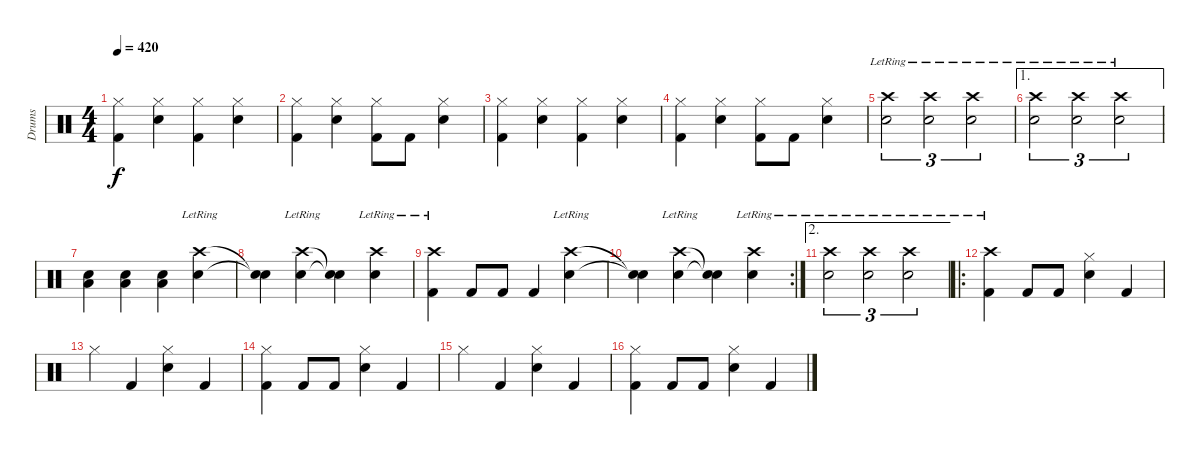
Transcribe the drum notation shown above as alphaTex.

\track ("Drums" "Drums") {instrument percussion}
\staff {score}
\articulation defaults
\ts (4 4)
\tempo 420
\clef neutral
\ks c
("Hi-Hat (closed)" "Kick (hit) 2").4{dy f} ("Hi-Hat (closed)" "Snare (hit) 2").4 ("Hi-Hat (closed)" "Kick (hit) 2").4 ("Hi-Hat (closed)" "Snare (hit) 2").4 |
("Hi-Hat (closed)" "Kick (hit) 2").4 ("Hi-Hat (closed)" "Snare (hit) 2").4 ("Hi-Hat (closed)" "Kick (hit) 2").8 "Kick (hit) 2".8 ("Hi-Hat (closed)" "Snare (hit) 2").4 |
("Hi-Hat (closed)" "Kick (hit) 2").4 ("Hi-Hat (closed)" "Snare (hit) 2").4 ("Hi-Hat (closed)" "Kick (hit) 2").4 ("Hi-Hat (closed)" "Snare (hit) 2").4 |
("Hi-Hat (closed)" "Kick (hit) 2").4 ("Hi-Hat (closed)" "Snare (hit) 2").4 ("Hi-Hat (closed)" "Kick (hit) 2").8 "Kick (hit) 2".8 ("Hi-Hat (closed)" "Snare (hit) 2").4 |
("Crash high (hit)"{lr} "Snare (hit) 2").2{tu (3 2)} ("Crash high (hit)"{lr} "Snare (hit) 2").2{tu (3 2)} ("Crash high (hit)"{lr} "Snare (hit) 2").2{tu (3 2)} |
\ae 1
("Crash high (hit)"{lr} "Snare (hit) 2").2{tu (3 2)} ("Crash high (hit)"{lr} "Snare (hit) 2").2{tu (3 2)} ("Crash high (hit)"{lr} "Snare (hit) 2").2{tu (3 2)} |
("Snare (hit) 2" "Low Floor Tom (hit)").4 ("Snare (hit) 2" "Low Floor Tom (hit)").4 ("Snare (hit) 2" "Low Floor Tom (hit)").4 ("Crash high (hit)"{lr} "Snare (hit) 2").4 |
("Snare (hit)"{t} "Snare (hit)"{t}).4 ("Crash high (hit)"{lr} "Snare (hit) 2").4 ("Snare (hit)"{t} "Snare (hit)"{t}).4 ("Crash high (hit)"{lr} "Snare (hit) 2").4 |
("Crash high (hit)"{lr} "Kick (hit) 2").4 "Kick (hit) 2".8 "Kick (hit) 2".8 "Kick (hit) 2".4 ("Crash high (hit)"{lr} "Snare (hit) 2").4 |
\rc 2
("Snare (hit)"{t} "Snare (hit)"{t}).4 ("Crash high (hit)"{lr} "Snare (hit) 2").4 ("Snare (hit)"{t} "Snare (hit)"{t}).4 ("Crash high (hit)"{lr} "Snare (hit) 2").4 |
\ae 2
("Crash high (hit)"{lr} "Snare (hit) 2").2{tu (3 2)} ("Crash high (hit)"{lr} "Snare (hit) 2").2{tu (3 2)} ("Crash high (hit)"{lr} "Snare (hit) 2").2{tu (3 2)} |
\ro
("Crash high (hit)"{lr} "Kick (hit) 2").4 "Kick (hit) 2".8 "Kick (hit) 2".8 ("Hi-Hat (closed)" "Snare (hit) 2").4 "Kick (hit) 2".4 |
"Hi-Hat (closed)".4 "Kick (hit) 2".4 ("Hi-Hat (closed)" "Snare (hit) 2").4 "Kick (hit) 2".4 |
("Hi-Hat (closed)" "Kick (hit) 2").4 "Kick (hit) 2".8 "Kick (hit) 2".8 ("Hi-Hat (closed)" "Snare (hit) 2").4 "Kick (hit) 2".4 |
"Hi-Hat (closed)".4 "Kick (hit) 2".4 ("Hi-Hat (closed)" "Snare (hit) 2").4 "Kick (hit) 2".4 |
("Hi-Hat (closed)" "Kick (hit) 2").4 "Kick (hit) 2".8 "Kick (hit) 2".8 ("Hi-Hat (closed)" "Snare (hit) 2").4 "Kick (hit) 2".4
